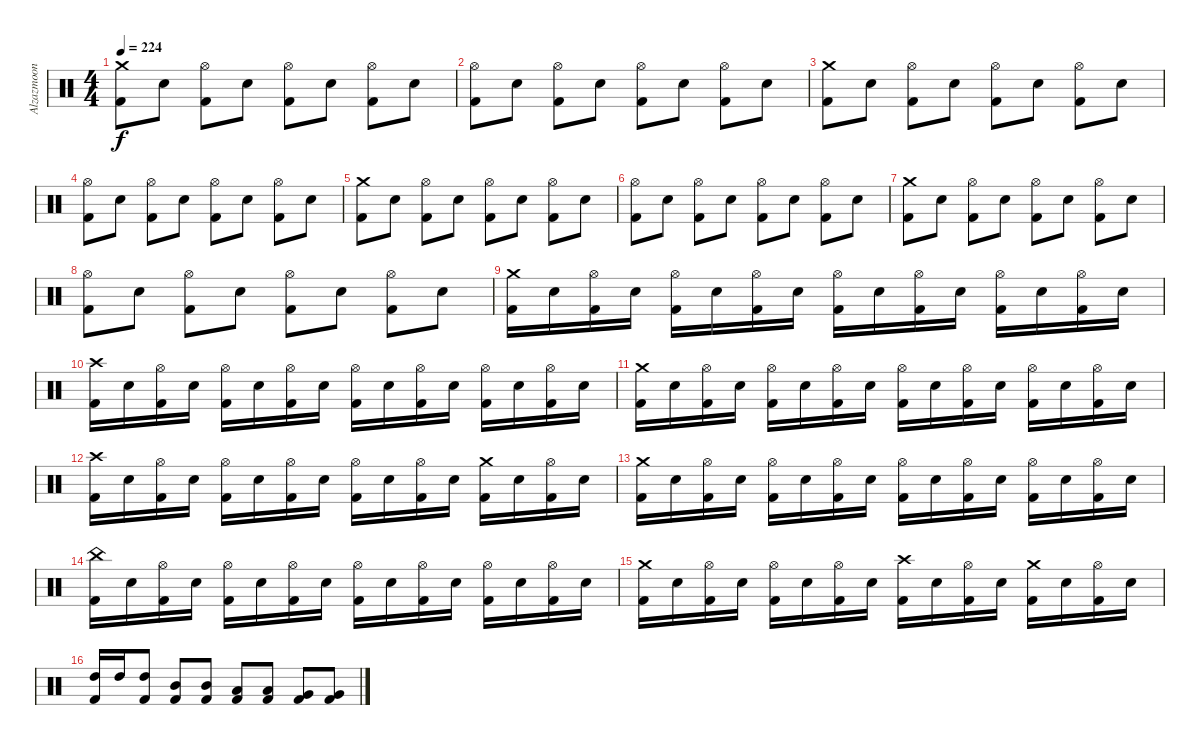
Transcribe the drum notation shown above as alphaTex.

\track ("Alzazmoon" "Alzazmoon") {instrument percussion}
\staff {score}
\articulation defaults
\ts (4 4)
\tempo 224
\clef neutral
\ks c
("Crash medium (hit)" "Kick (hit) 2").8{dy f} "Snare (hit) 2".8 ("Hi-Hat (open)" "Kick (hit) 2").8 "Snare (hit) 2".8 ("Hi-Hat (open)" "Kick (hit) 2").8 "Snare (hit) 2".8 ("Hi-Hat (open)" "Kick (hit) 2").8 "Snare (hit) 2".8 |
("Hi-Hat (open)" "Kick (hit) 2").8 "Snare (hit) 2".8 ("Hi-Hat (open)" "Kick (hit) 2").8 "Snare (hit) 2".8 ("Hi-Hat (open)" "Kick (hit) 2").8 "Snare (hit) 2".8 ("Hi-Hat (open)" "Kick (hit) 2").8 "Snare (hit) 2".8 |
("Crash medium (hit)" "Kick (hit) 2").8 "Snare (hit) 2".8 ("Hi-Hat (open)" "Kick (hit) 2").8 "Snare (hit) 2".8 ("Hi-Hat (open)" "Kick (hit) 2").8 "Snare (hit) 2".8 ("Hi-Hat (open)" "Kick (hit) 2").8 "Snare (hit) 2".8 |
("Hi-Hat (open)" "Kick (hit) 2").8 "Snare (hit) 2".8 ("Hi-Hat (open)" "Kick (hit) 2").8 "Snare (hit) 2".8 ("Hi-Hat (open)" "Kick (hit) 2").8 "Snare (hit) 2".8 ("Hi-Hat (open)" "Kick (hit) 2").8 "Snare (hit) 2".8 |
("Crash medium (hit)" "Kick (hit) 2").8 "Snare (hit) 2".8 ("Hi-Hat (open)" "Kick (hit) 2").8 "Snare (hit) 2".8 ("Hi-Hat (open)" "Kick (hit) 2").8 "Snare (hit) 2".8 ("Hi-Hat (open)" "Kick (hit) 2").8 "Snare (hit) 2".8 |
("Hi-Hat (open)" "Kick (hit) 2").8 "Snare (hit) 2".8 ("Hi-Hat (open)" "Kick (hit) 2").8 "Snare (hit) 2".8 ("Hi-Hat (open)" "Kick (hit) 2").8 "Snare (hit) 2".8 ("Hi-Hat (open)" "Kick (hit) 2").8 "Snare (hit) 2".8 |
("Crash medium (hit)" "Kick (hit) 2").8 "Snare (hit) 2".8 ("Hi-Hat (open)" "Kick (hit) 2").8 "Snare (hit) 2".8 ("Hi-Hat (open)" "Kick (hit) 2").8 "Snare (hit) 2".8 ("Hi-Hat (open)" "Kick (hit) 2").8 "Snare (hit) 2".8 |
("Hi-Hat (open)" "Kick (hit) 2").8 "Snare (hit) 2".8 ("Hi-Hat (open)" "Kick (hit) 2").8 "Snare (hit) 2".8 ("Hi-Hat (open)" "Kick (hit) 2").8 "Snare (hit) 2".8 ("Hi-Hat (open)" "Kick (hit) 2").8 "Snare (hit) 2".8 |
("Crash medium (hit)" "Kick (hit) 2").16 "Snare (hit) 2".16 ("Hi-Hat (open)" "Kick (hit) 2").16 "Snare (hit) 2".16 ("Hi-Hat (open)" "Kick (hit) 2").16 "Snare (hit) 2".16 ("Hi-Hat (open)" "Kick (hit) 2").16 "Snare (hit) 2".16 ("Hi-Hat (open)" "Kick (hit) 2").16 "Snare (hit) 2".16 ("Hi-Hat (open)" "Kick (hit) 2").16 "Snare (hit) 2".16 ("Hi-Hat (open)" "Kick (hit) 2").16 "Snare (hit) 2".16 ("Hi-Hat (open)" "Kick (hit) 2").16 "Snare (hit) 2".16 |
("Crash high (hit)" "Kick (hit) 2").16 "Snare (hit) 2".16 ("Hi-Hat (open)" "Kick (hit) 2").16 "Snare (hit) 2".16 ("Hi-Hat (open)" "Kick (hit) 2").16 "Snare (hit) 2".16 ("Hi-Hat (open)" "Kick (hit) 2").16 "Snare (hit) 2".16 ("Hi-Hat (open)" "Kick (hit) 2").16 "Snare (hit) 2".16 ("Hi-Hat (open)" "Kick (hit) 2").16 "Snare (hit) 2".16 ("Hi-Hat (open)" "Kick (hit) 2").16 "Snare (hit) 2".16 ("Hi-Hat (open)" "Kick (hit) 2").16 "Snare (hit) 2".16 |
("Crash medium (hit)" "Kick (hit) 2").16 "Snare (hit) 2".16 ("Hi-Hat (open)" "Kick (hit) 2").16 "Snare (hit) 2".16 ("Hi-Hat (open)" "Kick (hit) 2").16 "Snare (hit) 2".16 ("Hi-Hat (open)" "Kick (hit) 2").16 "Snare (hit) 2".16 ("Hi-Hat (open)" "Kick (hit) 2").16 "Snare (hit) 2".16 ("Hi-Hat (open)" "Kick (hit) 2").16 "Snare (hit) 2".16 ("Hi-Hat (open)" "Kick (hit) 2").16 "Snare (hit) 2".16 ("Hi-Hat (open)" "Kick (hit) 2").16 "Snare (hit) 2".16 |
("Crash high (hit)" "Kick (hit) 2").16 "Snare (hit) 2".16 ("Hi-Hat (open)" "Kick (hit) 2").16 "Snare (hit) 2".16 ("Hi-Hat (open)" "Kick (hit) 2").16 "Snare (hit) 2".16 ("Hi-Hat (open)" "Kick (hit) 2").16 "Snare (hit) 2".16 ("Hi-Hat (open)" "Kick (hit) 2").16 "Snare (hit) 2".16 ("Hi-Hat (open)" "Kick (hit) 2").16 "Snare (hit) 2".16 ("Crash medium (hit)" "Kick (hit) 2").16 "Snare (hit) 2".16 ("Hi-Hat (open)" "Kick (hit) 2").16 "Snare (hit) 2".16 |
("Crash medium (hit)" "Kick (hit) 2").16 "Snare (hit) 2".16 ("Hi-Hat (open)" "Kick (hit) 2").16 "Snare (hit) 2".16 ("Hi-Hat (open)" "Kick (hit) 2").16 "Snare (hit) 2".16 ("Hi-Hat (open)" "Kick (hit) 2").16 "Snare (hit) 2".16 ("Hi-Hat (open)" "Kick (hit) 2").16 "Snare (hit) 2".16 ("Hi-Hat (open)" "Kick (hit) 2").16 "Snare (hit) 2".16 ("Hi-Hat (open)" "Kick (hit) 2").16 "Snare (hit) 2".16 ("Hi-Hat (open)" "Kick (hit) 2").16 "Snare (hit) 2".16 |
("China (hit)" "Kick (hit) 2").16 "Snare (hit) 2".16 ("Hi-Hat (open)" "Kick (hit) 2").16 "Snare (hit) 2".16 ("Hi-Hat (open)" "Kick (hit) 2").16 "Snare (hit) 2".16 ("Hi-Hat (open)" "Kick (hit) 2").16 "Snare (hit) 2".16 ("Hi-Hat (open)" "Kick (hit) 2").16 "Snare (hit) 2".16 ("Hi-Hat (open)" "Kick (hit) 2").16 "Snare (hit) 2".16 ("Hi-Hat (open)" "Kick (hit) 2").16 "Snare (hit) 2".16 ("Hi-Hat (open)" "Kick (hit) 2").16 "Snare (hit) 2".16 |
("Crash medium (hit)" "Kick (hit) 2").16 "Snare (hit) 2".16 ("Hi-Hat (open)" "Kick (hit) 2").16 "Snare (hit) 2".16 ("Hi-Hat (open)" "Kick (hit) 2").16 "Snare (hit) 2".16 ("Hi-Hat (open)" "Kick (hit) 2").16 "Snare (hit) 2".16 ("Crash high (hit)" "Kick (hit) 2").16 "Snare (hit) 2".16 ("Hi-Hat (open)" "Kick (hit) 2").16 "Snare (hit) 2".16 ("Crash medium (hit)" "Kick (hit) 2").16 "Snare (hit) 2".16 ("Hi-Hat (open)" "Kick (hit) 2").16 "Snare (hit) 2".16 |
("High Tom (hit)" "Kick (hit) 2").16 "High Tom (hit)".16 ("High Tom (hit)" "Kick (hit) 2").8 ("Mid Tom (hit)" "Kick (hit) 2").8 ("Mid Tom (hit)" "Kick (hit) 2").8 ("Low Tom (hit)" "Kick (hit) 2").8 ("Low Tom (hit)" "Kick (hit) 2").8 ("Very Low Tom (hit)" "Kick (hit) 2").8 ("Very Low Tom (hit)" "Kick (hit) 2").8
